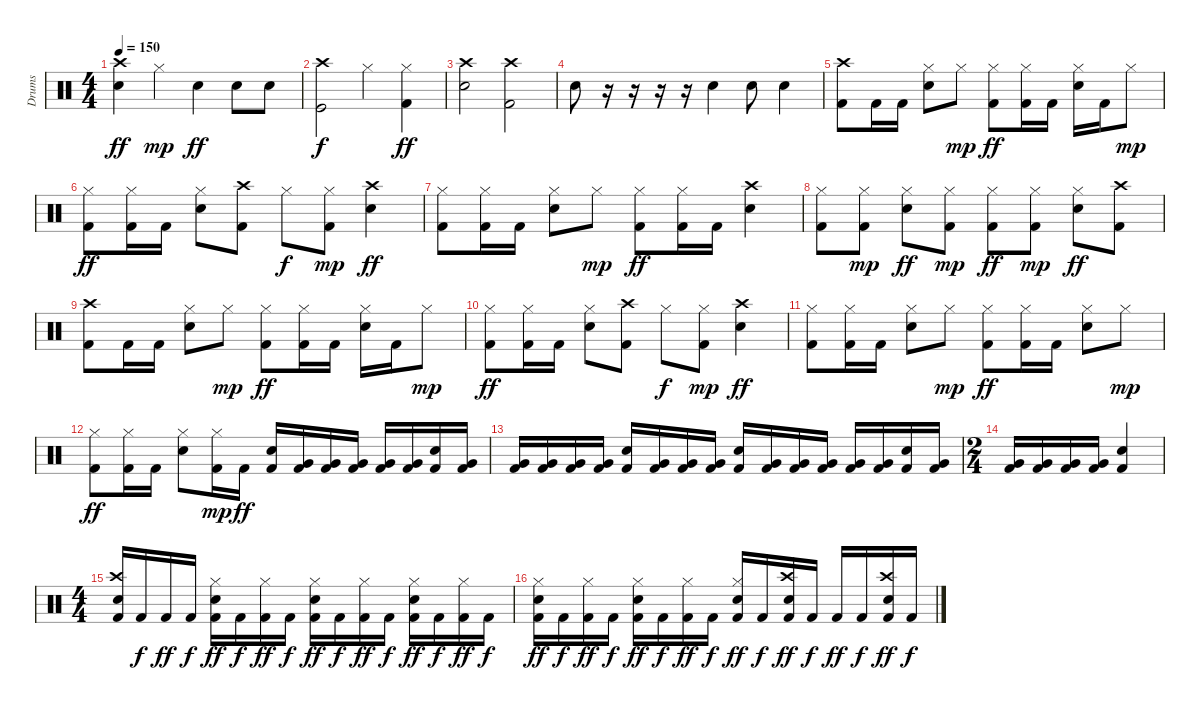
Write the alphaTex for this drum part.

\track ("Drums" "Drums") {instrument percussion}
\staff {score}
\articulation defaults
\ts (4 4)
\tempo 150
\clef neutral
\ks c
("Snare (hit) 2" "Crash high (hit)").4{dy ff} "Hi-Hat (closed)".4{dy mp} "Snare (hit) 2".4{dy ff} "Snare (hit) 2".8 "Snare (hit) 2".8 |
("Crash high (hit)" "Kick (hit)").2{dy f} "Hi-Hat (closed)".4 ("Hi-Hat (closed)" "Kick (hit) 2").4{dy ff} |
("Crash high (hit)" "Snare (hit) 2").2 ("Crash high (hit)" "Kick (hit) 2").2 |
"Snare (hit) 2".8 r.16 r.16 r.16 r.16 "Snare (hit) 2".4 "Snare (hit) 2".8 "Snare (hit) 2".4 |
("Crash high (hit)" "Kick (hit) 2").8 "Kick (hit) 2".16 "Kick (hit) 2".16 ("Hi-Hat (closed)" "Snare (hit) 2").8 "Hi-Hat (closed)".8{dy mp} ("Hi-Hat (closed)" "Kick (hit) 2").8{dy ff} ("Hi-Hat (closed)" "Kick (hit) 2").16 "Kick (hit) 2".16 ("Hi-Hat (closed)" "Snare (hit) 2").16 "Kick (hit) 2".16 "Hi-Hat (closed)".8{dy mp} |
("Hi-Hat (closed)" "Kick (hit) 2").8{dy ff} ("Hi-Hat (closed)" "Kick (hit) 2").16 "Kick (hit) 2".16 ("Hi-Hat (closed)" "Snare (hit) 2").8 ("Crash high (hit)" "Kick (hit) 2").8 "Hi-Hat (closed)".8{dy f} ("Kick (hit) 2" "Hi-Hat (closed)").8{dy mp} ("Snare (hit) 2" "Crash high (hit)").4{dy ff} |
("Hi-Hat (closed)" "Kick (hit) 2").8 ("Hi-Hat (closed)" "Kick (hit) 2").16 "Kick (hit) 2".16 ("Hi-Hat (closed)" "Snare (hit) 2").8 "Hi-Hat (closed)".8{dy mp} ("Hi-Hat (closed)" "Kick (hit) 2").8{dy ff} ("Hi-Hat (closed)" "Kick (hit) 2").16 "Kick (hit) 2".16 ("Snare (hit) 2" "Crash high (hit)").4 |
("Hi-Hat (closed)" "Kick (hit) 2").8 ("Kick (hit) 2" "Hi-Hat (closed)").8{dy mp} ("Hi-Hat (closed)" "Snare (hit) 2").8{dy ff} ("Kick (hit) 2" "Hi-Hat (closed)").8{dy mp} ("Hi-Hat (closed)" "Kick (hit) 2").8{dy ff} ("Kick (hit) 2" "Hi-Hat (closed)").8{dy mp} ("Hi-Hat (closed)" "Snare (hit) 2").8{dy ff} ("Kick (hit) 2" "Crash high (hit)").8 |
("Crash high (hit)" "Kick (hit) 2").8 "Kick (hit) 2".16 "Kick (hit) 2".16 ("Hi-Hat (closed)" "Snare (hit) 2").8 "Hi-Hat (closed)".8{dy mp} ("Hi-Hat (closed)" "Kick (hit) 2").8{dy ff} ("Hi-Hat (closed)" "Kick (hit) 2").16 "Kick (hit) 2".16 ("Hi-Hat (closed)" "Snare (hit) 2").16 "Kick (hit) 2".16 "Hi-Hat (closed)".8{dy mp} |
("Hi-Hat (closed)" "Kick (hit) 2").8{dy ff} ("Hi-Hat (closed)" "Kick (hit) 2").16 "Kick (hit) 2".16 ("Hi-Hat (closed)" "Snare (hit) 2").8 ("Crash high (hit)" "Kick (hit) 2").8 "Hi-Hat (closed)".8{dy f} ("Kick (hit) 2" "Hi-Hat (closed)").8{dy mp} ("Snare (hit) 2" "Crash high (hit)").4{dy ff} |
("Hi-Hat (closed)" "Kick (hit) 2").8 ("Hi-Hat (closed)" "Kick (hit) 2").16 "Kick (hit) 2".16 ("Hi-Hat (closed)" "Snare (hit) 2").8 "Hi-Hat (closed)".8{dy mp} ("Hi-Hat (closed)" "Kick (hit) 2").8{dy ff} ("Hi-Hat (closed)" "Kick (hit) 2").16 "Kick (hit) 2".16 ("Hi-Hat (closed)" "Snare (hit) 2").8 "Hi-Hat (closed)".8{dy mp} |
("Hi-Hat (closed)" "Kick (hit) 2").8{dy ff} ("Hi-Hat (closed)" "Kick (hit) 2").16 "Kick (hit) 2".16 ("Hi-Hat (closed)" "Snare (hit) 2").8 ("Kick (hit) 2" "Hi-Hat (closed)").16{dy mp} "Kick (hit) 2".16{dy ff} ("Snare (hit) 2" "Kick (hit) 2").16 ("Very Low Tom (hit)" "Kick (hit) 2").16 ("Very Low Tom (hit)" "Kick (hit) 2").16 ("Very Low Tom (hit)" "Kick (hit) 2").16 ("Kick (hit) 2" "Very Low Tom (hit)").16 ("Kick (hit) 2" "Very Low Tom (hit)").16 ("Snare (hit) 2" "Kick (hit) 2").16 ("Kick (hit) 2" "Very Low Tom (hit)").16 |
("Kick (hit) 2" "Very Low Tom (hit)").16 ("Kick (hit) 2" "Very Low Tom (hit)").16 ("Kick (hit) 2" "Very Low Tom (hit)").16 ("Kick (hit) 2" "Very Low Tom (hit)").16 ("Kick (hit) 2" "Snare (hit) 2").16 ("Kick (hit) 2" "Very Low Tom (hit)").16 ("Kick (hit) 2" "Very Low Tom (hit)").16 ("Kick (hit) 2" "Very Low Tom (hit)").16 ("Snare (hit) 2" "Kick (hit) 2").16 ("Very Low Tom (hit)" "Kick (hit) 2").16 ("Very Low Tom (hit)" "Kick (hit) 2").16 ("Very Low Tom (hit)" "Kick (hit) 2").16 ("Kick (hit) 2" "Very Low Tom (hit)").16 ("Kick (hit) 2" "Very Low Tom (hit)").16 ("Snare (hit) 2" "Kick (hit) 2").16 ("Kick (hit) 2" "Very Low Tom (hit)").16 |
\ts (2 4)
("Kick (hit) 2" "Very Low Tom (hit)").16 ("Kick (hit) 2" "Very Low Tom (hit)").16 ("Kick (hit) 2" "Very Low Tom (hit)").16 ("Kick (hit) 2" "Very Low Tom (hit)").16 ("Kick (hit) 2" "Snare (hit) 2").4 |
\ts (4 4)
("Kick (hit) 2" "Crash high (hit)" "Snare (hit) 2").16 "Kick (hit) 2".16{dy f} "Kick (hit) 2".16{dy ff} "Kick (hit) 2".16{dy f} ("Kick (hit) 2" "Hi-Hat (closed)" "Snare (hit) 2").16{dy ff} "Kick (hit) 2".16{dy f} ("Hi-Hat (closed)" "Kick (hit) 2").16{dy ff} "Kick (hit) 2".16{dy f} ("Kick (hit) 2" "Hi-Hat (closed)" "Snare (hit) 2").16{dy ff} "Kick (hit) 2".16{dy f} ("Hi-Hat (closed)" "Kick (hit) 2").16{dy ff} "Kick (hit) 2".16{dy f} ("Kick (hit) 2" "Hi-Hat (closed)" "Snare (hit) 2").16{dy ff} "Kick (hit) 2".16{dy f} ("Hi-Hat (closed)" "Kick (hit) 2").16{dy ff} "Kick (hit) 2".16{dy f} |
("Kick (hit) 2" "Hi-Hat (closed)" "Snare (hit) 2").16{dy ff} "Kick (hit) 2".16{dy f} ("Hi-Hat (closed)" "Kick (hit) 2").16{dy ff} "Kick (hit) 2".16{dy f} ("Kick (hit) 2" "Hi-Hat (closed)" "Snare (hit) 2").16{dy ff} "Kick (hit) 2".16{dy f} ("Hi-Hat (closed)" "Kick (hit) 2").16{dy ff} "Kick (hit) 2".16{dy f} ("Kick (hit) 2" "Hi-Hat (closed)" "Snare (hit) 2").16{dy ff} "Kick (hit) 2".16{dy f} ("Kick (hit) 2" "Snare (hit) 2" "Crash high (hit)").16{dy ff} "Kick (hit) 2".16{dy f} "Kick (hit) 2".16{dy ff} "Kick (hit) 2".16{dy f} ("Kick (hit) 2" "Snare (hit) 2" "Crash high (hit)").16{dy ff} "Kick (hit) 2".16{dy f}
